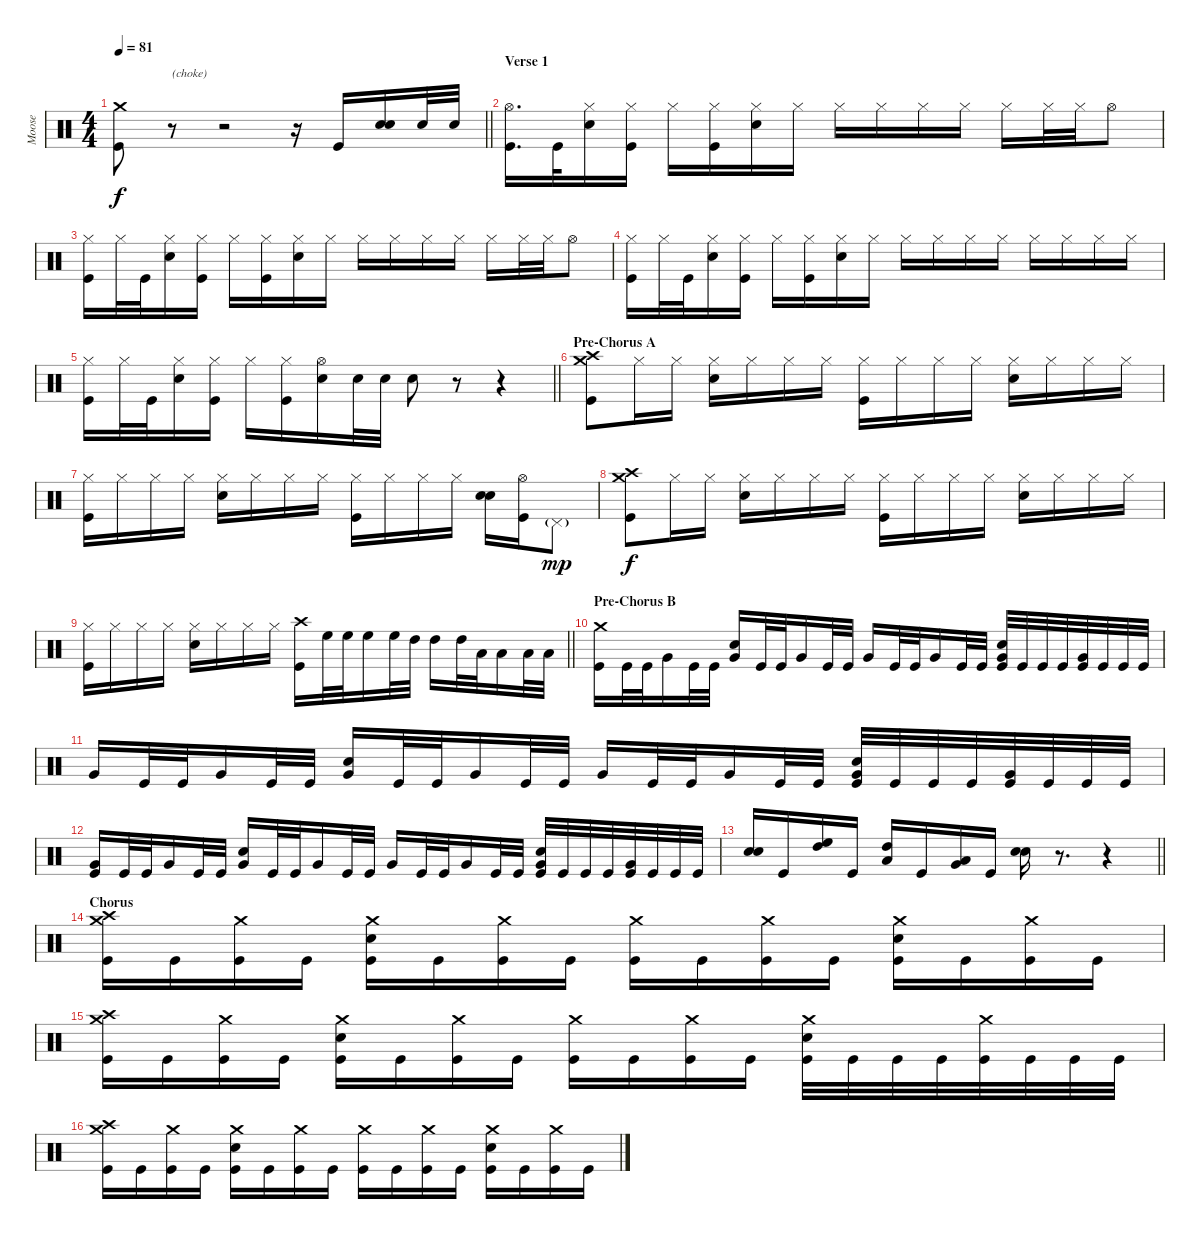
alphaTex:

\track ("Moose" "Moose") {instrument percussion}
\staff {score}
\articulation defaults
\ts (4 4)
\tempo 81
\clef neutral
\barLineRight lightlight
\ks c
("Crash medium (hit)" "Kick (hit)").8{dy f} r.8{txt "(choke)"} r.2 r.16 "Kick (hit)".16 ("Electric Snare (hit)" "Electric Snare (hit)").16{bd 120} "Electric Snare (hit)".32 "Electric Snare (hit)".32 |
\section ("" "Verse 1")
("Hi-Hat (open)" "Kick (hit)").16{d} "Kick (hit)".32 ("Hi-Hat (closed)" "Electric Snare (hit)").16 ("Hi-Hat (closed)" "Kick (hit)").16 "Hi-Hat (closed)".16 ("Hi-Hat (closed)" "Kick (hit)").16 ("Hi-Hat (closed)" "Electric Snare (hit)").16 "Hi-Hat (closed)".16 "Hi-Hat (closed)".16 "Hi-Hat (closed)".16 "Hi-Hat (closed)".16 "Hi-Hat (closed)".16 "Hi-Hat (closed)".16 "Hi-Hat (closed)".32 "Hi-Hat (closed)".32 "Hi-Hat (open)".8 |
("Hi-Hat (closed)" "Kick (hit)").16 "Hi-Hat (closed)".32 "Kick (hit)".32 ("Hi-Hat (closed)" "Electric Snare (hit)").16 ("Hi-Hat (closed)" "Kick (hit)").16 "Hi-Hat (closed)".16 ("Hi-Hat (closed)" "Kick (hit)").16 ("Hi-Hat (closed)" "Electric Snare (hit)").16 "Hi-Hat (closed)".16 "Hi-Hat (closed)".16 "Hi-Hat (closed)".16 "Hi-Hat (closed)".16 "Hi-Hat (closed)".16 "Hi-Hat (closed)".16 "Hi-Hat (closed)".32 "Hi-Hat (closed)".32 "Hi-Hat (open)".8 |
("Hi-Hat (closed)" "Kick (hit)").16 "Hi-Hat (closed)".32 "Kick (hit)".32 ("Hi-Hat (closed)" "Electric Snare (hit)").16 ("Hi-Hat (closed)" "Kick (hit)").16 "Hi-Hat (closed)".16 ("Hi-Hat (closed)" "Kick (hit)").16 ("Hi-Hat (closed)" "Electric Snare (hit)").16 "Hi-Hat (closed)".16 "Hi-Hat (closed)".16 "Hi-Hat (closed)".16 "Hi-Hat (closed)".16 "Hi-Hat (closed)".16 "Hi-Hat (closed)".16 "Hi-Hat (closed)".16 "Hi-Hat (closed)".16 "Hi-Hat (closed)".16 |
\barLineRight lightlight
("Hi-Hat (closed)" "Kick (hit)").16 "Hi-Hat (closed)".32 "Kick (hit)".32 ("Hi-Hat (closed)" "Electric Snare (hit)").16 ("Hi-Hat (closed)" "Kick (hit)").16 "Hi-Hat (closed)".16 ("Hi-Hat (closed)" "Kick (hit)").16 ("Hi-Hat (open)" "Electric Snare (hit)").16 "Electric Snare (hit)".32 "Electric Snare (hit)".32 "Electric Snare (hit)".8 r.8 r.4 |
\section ("" "Pre-Chorus A")
("Crash high (hit)" "Crash medium (hit)" "Kick (hit)").8 "Hi-Hat (closed)".16 "Hi-Hat (closed)".16 ("Hi-Hat (closed)" "Electric Snare (hit)").16 "Hi-Hat (closed)".16 "Hi-Hat (closed)".16 "Hi-Hat (closed)".16 ("Hi-Hat (closed)" "Kick (hit)").16 "Hi-Hat (closed)".16 "Hi-Hat (closed)".16 "Hi-Hat (closed)".16 ("Hi-Hat (closed)" "Electric Snare (hit)").16 "Hi-Hat (closed)".16 "Hi-Hat (closed)".16 "Hi-Hat (closed)".16 |
("Hi-Hat (closed)" "Kick (hit)").16 "Hi-Hat (closed)".16 "Hi-Hat (closed)".16 "Hi-Hat (closed)".16 ("Hi-Hat (closed)" "Electric Snare (hit)").16 "Hi-Hat (closed)".16 "Hi-Hat (closed)".16 "Hi-Hat (closed)".16 ("Hi-Hat (closed)" "Kick (hit)").16 "Hi-Hat (closed)".16 "Hi-Hat (closed)".16 "Hi-Hat (closed)".16 ("Electric Snare (hit)" "Electric Snare (hit)").16{bd 120} ("Hi-Hat (open)" "Kick (hit)").16 "Pedal Hi-Hat (hit)"{g}.8{dy mp} |
("Crash high (hit)" "Crash medium (hit)" "Kick (hit)").8{dy f} "Hi-Hat (closed)".16 "Hi-Hat (closed)".16 ("Hi-Hat (closed)" "Electric Snare (hit)").16 "Hi-Hat (closed)".16 "Hi-Hat (closed)".16 "Hi-Hat (closed)".16 ("Hi-Hat (closed)" "Kick (hit)").16 "Hi-Hat (closed)".16 "Hi-Hat (closed)".16 "Hi-Hat (closed)".16 ("Hi-Hat (closed)" "Electric Snare (hit)").16 "Hi-Hat (closed)".16 "Hi-Hat (closed)".16 "Hi-Hat (closed)".16 |
\barLineRight lightlight
("Hi-Hat (closed)" "Kick (hit)").16 "Hi-Hat (closed)".16 "Hi-Hat (closed)".16 "Hi-Hat (closed)".16 ("Hi-Hat (closed)" "Electric Snare (hit)").16 "Hi-Hat (closed)".16 "Hi-Hat (closed)".16 "Hi-Hat (closed)".16 ("Crash high (hit)" "Kick (hit)").16 "High Floor Tom (hit)".32 "High Floor Tom (hit)".32 "High Floor Tom (hit)".16 "High Floor Tom (hit)".32 "High Tom (hit)".32 "High Tom (hit)".16 "High Tom (hit)".32 "Low Tom (hit)".32 "Low Tom (hit)".16 "Low Tom (hit)".32 "Low Tom (hit)".32 |
\section ("" "Pre-Chorus B")
("Crash medium (hit)" "Kick (hit)").16 "Kick (hit)".32 "Kick (hit)".32 "Very Low Tom (hit)".16 "Kick (hit)".32 "Kick (hit)".32 ("Electric Snare (hit)" "Very Low Tom (hit)").16 "Kick (hit)".32 "Kick (hit)".32 "Very Low Tom (hit)".16 "Kick (hit)".32 "Kick (hit)".32 "Very Low Tom (hit)".16 "Kick (hit)".32 "Kick (hit)".32 "Very Low Tom (hit)".16 "Kick (hit)".32 "Kick (hit)".32 ("Electric Snare (hit)" "Very Low Tom (hit)" "Kick (hit)").32 "Kick (hit)".32 "Kick (hit)".32 "Kick (hit)".32 ("Very Low Tom (hit)" "Kick (hit)").32 "Kick (hit)".32 "Kick (hit)".32 "Kick (hit)".32 |
"Very Low Tom (hit)".16 "Kick (hit)".32 "Kick (hit)".32 "Very Low Tom (hit)".16 "Kick (hit)".32 "Kick (hit)".32 ("Electric Snare (hit)" "Very Low Tom (hit)").16 "Kick (hit)".32 "Kick (hit)".32 "Very Low Tom (hit)".16 "Kick (hit)".32 "Kick (hit)".32 "Very Low Tom (hit)".16 "Kick (hit)".32 "Kick (hit)".32 "Very Low Tom (hit)".16 "Kick (hit)".32 "Kick (hit)".32 ("Electric Snare (hit)" "Very Low Tom (hit)" "Kick (hit)").32 "Kick (hit)".32 "Kick (hit)".32 "Kick (hit)".32 ("Very Low Tom (hit)" "Kick (hit)").32 "Kick (hit)".32 "Kick (hit)".32 "Kick (hit)".32 |
("Very Low Tom (hit)" "Kick (hit)").16 "Kick (hit)".32 "Kick (hit)".32 "Very Low Tom (hit)".16 "Kick (hit)".32 "Kick (hit)".32 ("Electric Snare (hit)" "Very Low Tom (hit)").16 "Kick (hit)".32 "Kick (hit)".32 "Very Low Tom (hit)".16 "Kick (hit)".32 "Kick (hit)".32 "Very Low Tom (hit)".16 "Kick (hit)".32 "Kick (hit)".32 "Very Low Tom (hit)".16 "Kick (hit)".32 "Kick (hit)".32 ("Electric Snare (hit)" "Very Low Tom (hit)" "Kick (hit)").32 "Kick (hit)".32 "Kick (hit)".32 "Kick (hit)".32 ("Very Low Tom (hit)" "Kick (hit)").32 "Kick (hit)".32 "Kick (hit)".32 "Kick (hit)".32 |
\barLineRight lightlight
("Electric Snare (hit)" "Electric Snare (hit)").16{bd 120} "Kick (hit)".16 ("High Floor Tom (hit)" "High Tom (hit)").16{bd 120} "Kick (hit)".16 ("High Tom (hit)" "Low Tom (hit)").16{bd 120} "Kick (hit)".16 ("Low Tom (hit)" "Very Low Tom (hit)").16{bd 120} "Kick (hit)".16 ("Electric Snare (hit)" "Electric Snare (hit)").16{bd 120} r.8{d} r.4 |
\section ("" "Chorus")
("Crash high (hit)" "Crash medium (hit)" "Kick (hit)").16 "Kick (hit)".16 ("Crash medium (hit)" "Kick (hit)").16 "Kick (hit)".16 ("Crash medium (hit)" "Electric Snare (hit)" "Kick (hit)").16 "Kick (hit)".16 ("Crash medium (hit)" "Kick (hit)").16 "Kick (hit)".16 ("Crash medium (hit)" "Kick (hit)").16 "Kick (hit)".16 ("Crash medium (hit)" "Kick (hit)").16 "Kick (hit)".16 ("Crash medium (hit)" "Electric Snare (hit)" "Kick (hit)").16 "Kick (hit)".16 ("Crash medium (hit)" "Kick (hit)").16 "Kick (hit)".16 |
("Crash high (hit)" "Crash medium (hit)" "Kick (hit)").16 "Kick (hit)".16 ("Crash medium (hit)" "Kick (hit)").16 "Kick (hit)".16 ("Crash medium (hit)" "Electric Snare (hit)" "Kick (hit)").16 "Kick (hit)".16 ("Crash medium (hit)" "Kick (hit)").16 "Kick (hit)".16 ("Crash medium (hit)" "Kick (hit)").16 "Kick (hit)".16 ("Crash medium (hit)" "Kick (hit)").16 "Kick (hit)".16 ("Crash medium (hit)" "Electric Snare (hit)" "Kick (hit)").32 "Kick (hit)".32 "Kick (hit)".32 "Kick (hit)".32 ("Crash medium (hit)" "Kick (hit)").32 "Kick (hit)".32 "Kick (hit)".32 "Kick (hit)".32 |
("Crash high (hit)" "Crash medium (hit)" "Kick (hit)").16 "Kick (hit)".16 ("Crash medium (hit)" "Kick (hit)").16 "Kick (hit)".16 ("Crash medium (hit)" "Electric Snare (hit)" "Kick (hit)").16 "Kick (hit)".16 ("Crash medium (hit)" "Kick (hit)").16 "Kick (hit)".16 ("Crash medium (hit)" "Kick (hit)").16 "Kick (hit)".16 ("Crash medium (hit)" "Kick (hit)").16 "Kick (hit)".16 ("Crash medium (hit)" "Electric Snare (hit)" "Kick (hit)").16 "Kick (hit)".16 ("Crash medium (hit)" "Kick (hit)").16 "Kick (hit)".16
